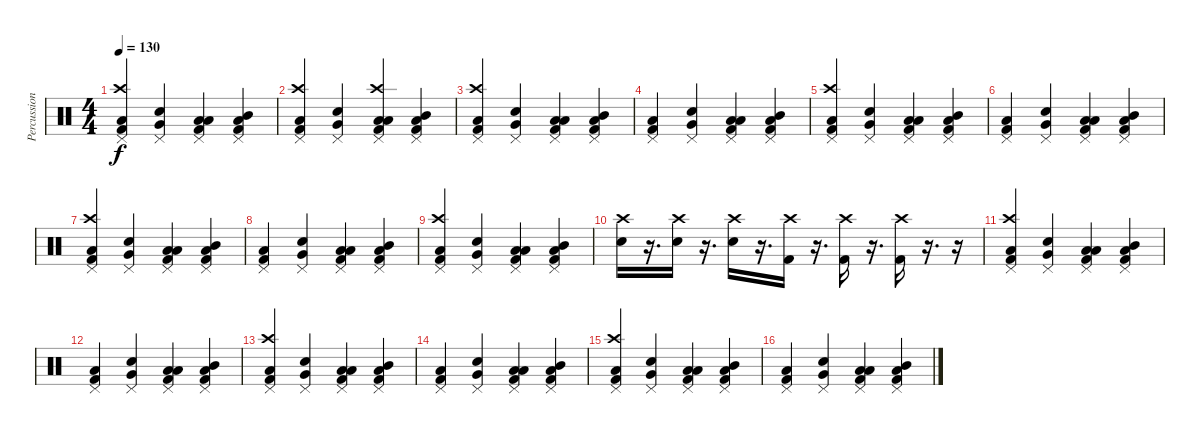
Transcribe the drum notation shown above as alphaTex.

\track ("Percussion" "Percussion") {instrument percussion}
\staff {score}
\articulation defaults
\ts (4 4)
\tempo 130
\clef neutral
\ks c
("Pedal Hi-Hat (hit)" "Crash high (hit)" "Kick (hit) 2" "Low Floor Tom (hit)").4{dy f} ("Pedal Hi-Hat (hit)" "Very Low Tom (hit)" "Snare (hit) 2").4 ("Pedal Hi-Hat (hit)" "Low Floor Tom (hit)" "Kick (hit) 2" "Low Tom (hit)").4 ("Pedal Hi-Hat (hit)" "Low Tom (hit)" "Kick (hit) 2" "Mid Tom (hit)").4 |
("Pedal Hi-Hat (hit)" "Crash high (hit)" "Kick (hit) 2" "Low Floor Tom (hit)").4 ("Pedal Hi-Hat (hit)" "Very Low Tom (hit)" "Snare (hit) 2").4 ("Pedal Hi-Hat (hit)" "Crash high (hit)" "Low Floor Tom (hit)" "Kick (hit) 2" "Low Tom (hit)").4 ("Pedal Hi-Hat (hit)" "Low Tom (hit)" "Kick (hit) 2" "Mid Tom (hit)").4 |
("Pedal Hi-Hat (hit)" "Crash high (hit)" "Kick (hit) 2" "Low Floor Tom (hit)").4 ("Pedal Hi-Hat (hit)" "Very Low Tom (hit)" "Snare (hit) 2").4 ("Pedal Hi-Hat (hit)" "Low Floor Tom (hit)" "Kick (hit) 2" "Low Tom (hit)").4 ("Pedal Hi-Hat (hit)" "Low Tom (hit)" "Kick (hit) 2" "Mid Tom (hit)").4 |
("Pedal Hi-Hat (hit)" "Kick (hit) 2" "Low Floor Tom (hit)").4 ("Pedal Hi-Hat (hit)" "Very Low Tom (hit)" "Snare (hit) 2").4 ("Pedal Hi-Hat (hit)" "Low Floor Tom (hit)" "Kick (hit) 2" "Low Tom (hit)").4 ("Pedal Hi-Hat (hit)" "Low Tom (hit)" "Kick (hit) 2" "Mid Tom (hit)").4 |
("Pedal Hi-Hat (hit)" "Crash high (hit)" "Kick (hit) 2" "Low Floor Tom (hit)").4 ("Pedal Hi-Hat (hit)" "Very Low Tom (hit)" "Snare (hit) 2").4 ("Pedal Hi-Hat (hit)" "Low Floor Tom (hit)" "Kick (hit) 2" "Low Tom (hit)").4 ("Pedal Hi-Hat (hit)" "Low Tom (hit)" "Kick (hit) 2" "Mid Tom (hit)").4 |
("Pedal Hi-Hat (hit)" "Kick (hit) 2" "Low Floor Tom (hit)").4 ("Pedal Hi-Hat (hit)" "Very Low Tom (hit)" "Snare (hit) 2").4 ("Pedal Hi-Hat (hit)" "Low Floor Tom (hit)" "Kick (hit) 2" "Low Tom (hit)").4 ("Pedal Hi-Hat (hit)" "Low Tom (hit)" "Kick (hit) 2" "Mid Tom (hit)").4 |
("Pedal Hi-Hat (hit)" "Crash high (hit)" "Kick (hit) 2" "Low Floor Tom (hit)").4 ("Pedal Hi-Hat (hit)" "Very Low Tom (hit)" "Snare (hit) 2").4 ("Pedal Hi-Hat (hit)" "Low Floor Tom (hit)" "Kick (hit) 2" "Low Tom (hit)").4 ("Pedal Hi-Hat (hit)" "Low Tom (hit)" "Kick (hit) 2" "Mid Tom (hit)").4 |
("Pedal Hi-Hat (hit)" "Kick (hit) 2" "Low Floor Tom (hit)").4 ("Pedal Hi-Hat (hit)" "Very Low Tom (hit)" "Snare (hit) 2").4 ("Pedal Hi-Hat (hit)" "Low Floor Tom (hit)" "Kick (hit) 2" "Low Tom (hit)").4 ("Pedal Hi-Hat (hit)" "Low Tom (hit)" "Kick (hit) 2" "Mid Tom (hit)").4 |
("Pedal Hi-Hat (hit)" "Crash high (hit)" "Kick (hit) 2" "Low Floor Tom (hit)").4 ("Pedal Hi-Hat (hit)" "Very Low Tom (hit)" "Snare (hit) 2").4 ("Pedal Hi-Hat (hit)" "Low Floor Tom (hit)" "Kick (hit) 2" "Low Tom (hit)").4 ("Pedal Hi-Hat (hit)" "Low Tom (hit)" "Kick (hit) 2" "Mid Tom (hit)").4 |
("Snare (hit) 2" "Crash high (hit)").16{bd 480} r.16{d} ("Snare (hit) 2" "Crash high (hit)").16{bd 480} r.16{d} ("Snare (hit) 2" "Crash high (hit)").16{bd 480} r.16{d} ("Kick (hit) 2" "Crash high (hit)").16{bd 480} r.16{d} ("Kick (hit) 2" "Crash high (hit)").16 r.16{d} ("Kick (hit) 2" "Crash high (hit)").16 r.16{d} r.16 |
("Pedal Hi-Hat (hit)" "Crash high (hit)" "Kick (hit) 2" "Low Floor Tom (hit)").4 ("Pedal Hi-Hat (hit)" "Very Low Tom (hit)" "Snare (hit) 2").4 ("Pedal Hi-Hat (hit)" "Low Floor Tom (hit)" "Kick (hit) 2" "Low Tom (hit)").4 ("Pedal Hi-Hat (hit)" "Low Tom (hit)" "Kick (hit) 2" "Mid Tom (hit)").4 |
("Pedal Hi-Hat (hit)" "Kick (hit) 2" "Low Floor Tom (hit)").4 ("Pedal Hi-Hat (hit)" "Very Low Tom (hit)" "Snare (hit) 2").4 ("Pedal Hi-Hat (hit)" "Low Floor Tom (hit)" "Kick (hit) 2" "Low Tom (hit)").4 ("Pedal Hi-Hat (hit)" "Low Tom (hit)" "Kick (hit) 2" "Mid Tom (hit)").4 |
("Pedal Hi-Hat (hit)" "Crash high (hit)" "Kick (hit) 2" "Low Floor Tom (hit)").4 ("Pedal Hi-Hat (hit)" "Very Low Tom (hit)" "Snare (hit) 2").4 ("Pedal Hi-Hat (hit)" "Low Floor Tom (hit)" "Kick (hit) 2" "Low Tom (hit)").4 ("Pedal Hi-Hat (hit)" "Low Tom (hit)" "Kick (hit) 2" "Mid Tom (hit)").4 |
("Pedal Hi-Hat (hit)" "Kick (hit) 2" "Low Floor Tom (hit)").4 ("Pedal Hi-Hat (hit)" "Very Low Tom (hit)" "Snare (hit) 2").4 ("Pedal Hi-Hat (hit)" "Low Floor Tom (hit)" "Kick (hit) 2" "Low Tom (hit)").4 ("Pedal Hi-Hat (hit)" "Low Tom (hit)" "Kick (hit) 2" "Mid Tom (hit)").4 |
("Pedal Hi-Hat (hit)" "Crash high (hit)" "Kick (hit) 2" "Low Floor Tom (hit)").4 ("Pedal Hi-Hat (hit)" "Very Low Tom (hit)" "Snare (hit) 2").4 ("Pedal Hi-Hat (hit)" "Low Floor Tom (hit)" "Kick (hit) 2" "Low Tom (hit)").4 ("Pedal Hi-Hat (hit)" "Low Tom (hit)" "Kick (hit) 2" "Mid Tom (hit)").4 |
("Pedal Hi-Hat (hit)" "Kick (hit) 2" "Low Floor Tom (hit)").4 ("Pedal Hi-Hat (hit)" "Very Low Tom (hit)" "Snare (hit) 2").4 ("Pedal Hi-Hat (hit)" "Low Floor Tom (hit)" "Kick (hit) 2" "Low Tom (hit)").4 ("Pedal Hi-Hat (hit)" "Low Tom (hit)" "Kick (hit) 2" "Mid Tom (hit)").4
